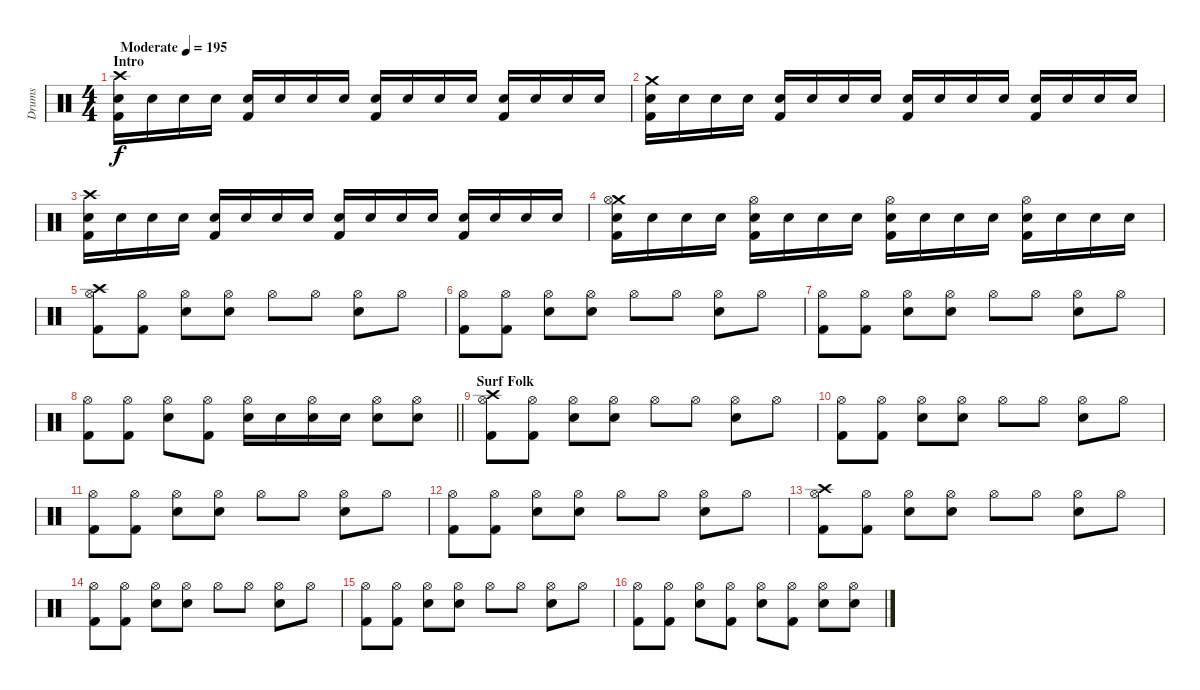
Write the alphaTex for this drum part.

\track ("Drums" "Drums") {instrument percussion}
\staff {score}
\articulation defaults
\ts (4 4)
\section ("" "Intro")
\tempo (195 "Moderate")
\clef neutral
\ks c
("Crash high (hit)" "Snare (hit) 2" "Kick (hit) 2").16{dy f} "Snare (hit) 2".16 "Snare (hit) 2".16 "Snare (hit) 2".16 ("Snare (hit) 2" "Kick (hit) 2").16 "Snare (hit) 2".16 "Snare (hit) 2".16 "Snare (hit) 2".16 ("Snare (hit) 2" "Kick (hit) 2").16 "Snare (hit) 2".16 "Snare (hit) 2".16 "Snare (hit) 2".16 ("Snare (hit) 2" "Kick (hit) 2").16 "Snare (hit) 2".16 "Snare (hit) 2".16 "Snare (hit) 2".16 |
("Crash medium (hit)" "Snare (hit) 2" "Kick (hit) 2").16 "Snare (hit) 2".16 "Snare (hit) 2".16 "Snare (hit) 2".16 ("Snare (hit) 2" "Kick (hit) 2").16 "Snare (hit) 2".16 "Snare (hit) 2".16 "Snare (hit) 2".16 ("Snare (hit) 2" "Kick (hit) 2").16 "Snare (hit) 2".16 "Snare (hit) 2".16 "Snare (hit) 2".16 ("Snare (hit) 2" "Kick (hit) 2").16 "Snare (hit) 2".16 "Snare (hit) 2".16 "Snare (hit) 2".16 |
("Crash high (hit)" "Snare (hit) 2" "Kick (hit) 2").16 "Snare (hit) 2".16 "Snare (hit) 2".16 "Snare (hit) 2".16 ("Snare (hit) 2" "Kick (hit) 2").16 "Snare (hit) 2".16 "Snare (hit) 2".16 "Snare (hit) 2".16 ("Snare (hit) 2" "Kick (hit) 2").16 "Snare (hit) 2".16 "Snare (hit) 2".16 "Snare (hit) 2".16 ("Snare (hit) 2" "Kick (hit) 2").16 "Snare (hit) 2".16 "Snare (hit) 2".16 "Snare (hit) 2".16 |
("Crash medium (hit)" "Hi-Hat (open)" "Snare (hit) 2" "Kick (hit) 2").16 "Snare (hit) 2".16 "Snare (hit) 2".16 "Snare (hit) 2".16 ("Hi-Hat (open)" "Snare (hit) 2" "Kick (hit) 2").16 "Snare (hit) 2".16 "Snare (hit) 2".16 "Snare (hit) 2".16 ("Hi-Hat (open)" "Snare (hit) 2" "Kick (hit) 2").16 "Snare (hit) 2".16 "Snare (hit) 2".16 "Snare (hit) 2".16 ("Hi-Hat (open)" "Snare (hit) 2" "Kick (hit) 2").16 "Snare (hit) 2".16 "Snare (hit) 2".16 "Snare (hit) 2".16 |
("Crash high (hit)" "Hi-Hat (open)" "Kick (hit) 2").8 ("Hi-Hat (open)" "Kick (hit) 2").8 ("Hi-Hat (open)" "Snare (hit) 2").8 ("Hi-Hat (open)" "Snare (hit) 2").8 "Hi-Hat (open)".8 "Hi-Hat (open)".8 ("Hi-Hat (open)" "Snare (hit) 2").8 "Hi-Hat (open)".8 |
("Hi-Hat (open)" "Kick (hit) 2").8 ("Hi-Hat (open)" "Kick (hit) 2").8 ("Hi-Hat (open)" "Snare (hit) 2").8 ("Hi-Hat (open)" "Snare (hit) 2").8 "Hi-Hat (open)".8 "Hi-Hat (open)".8 ("Hi-Hat (open)" "Snare (hit) 2").8 "Hi-Hat (open)".8 |
("Hi-Hat (open)" "Kick (hit) 2").8 ("Hi-Hat (open)" "Kick (hit) 2").8 ("Hi-Hat (open)" "Snare (hit) 2").8 ("Hi-Hat (open)" "Snare (hit) 2").8 "Hi-Hat (open)".8 "Hi-Hat (open)".8 ("Hi-Hat (open)" "Snare (hit) 2").8 "Hi-Hat (open)".8 |
\barLineRight lightlight
("Hi-Hat (open)" "Kick (hit) 2").8 ("Hi-Hat (open)" "Kick (hit) 2").8 ("Hi-Hat (open)" "Snare (hit) 2").8 ("Hi-Hat (open)" "Kick (hit) 2").8 ("Hi-Hat (open)" "Snare (hit) 2").16 "Snare (hit) 2".16 ("Hi-Hat (open)" "Snare (hit) 2").16 "Snare (hit) 2".16 ("Hi-Hat (open)" "Snare (hit) 2").8 ("Hi-Hat (open)" "Snare (hit) 2").8 |
\section ("" "Surf Folk")
("Crash high (hit)" "Hi-Hat (open)" "Kick (hit) 2").8 ("Hi-Hat (open)" "Kick (hit) 2").8 ("Hi-Hat (open)" "Snare (hit) 2").8 ("Hi-Hat (open)" "Snare (hit) 2").8 "Hi-Hat (open)".8 "Hi-Hat (open)".8 ("Hi-Hat (open)" "Snare (hit) 2").8 "Hi-Hat (open)".8 |
("Hi-Hat (open)" "Kick (hit) 2").8 ("Hi-Hat (open)" "Kick (hit) 2").8 ("Hi-Hat (open)" "Snare (hit) 2").8 ("Hi-Hat (open)" "Snare (hit) 2").8 "Hi-Hat (open)".8 "Hi-Hat (open)".8 ("Hi-Hat (open)" "Snare (hit) 2").8 "Hi-Hat (open)".8 |
("Hi-Hat (open)" "Kick (hit) 2").8 ("Hi-Hat (open)" "Kick (hit) 2").8 ("Hi-Hat (open)" "Snare (hit) 2").8 ("Hi-Hat (open)" "Snare (hit) 2").8 "Hi-Hat (open)".8 "Hi-Hat (open)".8 ("Hi-Hat (open)" "Snare (hit) 2").8 "Hi-Hat (open)".8 |
("Hi-Hat (open)" "Kick (hit) 2").8 ("Hi-Hat (open)" "Kick (hit) 2").8 ("Hi-Hat (open)" "Snare (hit) 2").8 ("Hi-Hat (open)" "Snare (hit) 2").8 "Hi-Hat (open)".8 "Hi-Hat (open)".8 ("Hi-Hat (open)" "Snare (hit) 2").8 "Hi-Hat (open)".8 |
("Crash high (hit)" "Hi-Hat (open)" "Kick (hit) 2").8 ("Hi-Hat (open)" "Kick (hit) 2").8 ("Hi-Hat (open)" "Snare (hit) 2").8 ("Hi-Hat (open)" "Snare (hit) 2").8 "Hi-Hat (open)".8 "Hi-Hat (open)".8 ("Hi-Hat (open)" "Snare (hit) 2").8 "Hi-Hat (open)".8 |
("Hi-Hat (open)" "Kick (hit) 2").8 ("Hi-Hat (open)" "Kick (hit) 2").8 ("Hi-Hat (open)" "Snare (hit) 2").8 ("Hi-Hat (open)" "Snare (hit) 2").8 "Hi-Hat (open)".8 "Hi-Hat (open)".8 ("Hi-Hat (open)" "Snare (hit) 2").8 "Hi-Hat (open)".8 |
("Hi-Hat (open)" "Kick (hit) 2").8 ("Hi-Hat (open)" "Kick (hit) 2").8 ("Hi-Hat (open)" "Snare (hit) 2").8 ("Hi-Hat (open)" "Snare (hit) 2").8 "Hi-Hat (open)".8 "Hi-Hat (open)".8 ("Hi-Hat (open)" "Snare (hit) 2").8 "Hi-Hat (open)".8 |
("Hi-Hat (open)" "Kick (hit) 2").8 ("Hi-Hat (open)" "Kick (hit) 2").8 ("Hi-Hat (open)" "Snare (hit) 2").8 ("Hi-Hat (open)" "Kick (hit) 2").8 ("Hi-Hat (open)" "Snare (hit) 2").8 ("Hi-Hat (open)" "Kick (hit) 2").8 ("Hi-Hat (open)" "Snare (hit) 2").8 ("Hi-Hat (open)" "Snare (hit) 2").8
